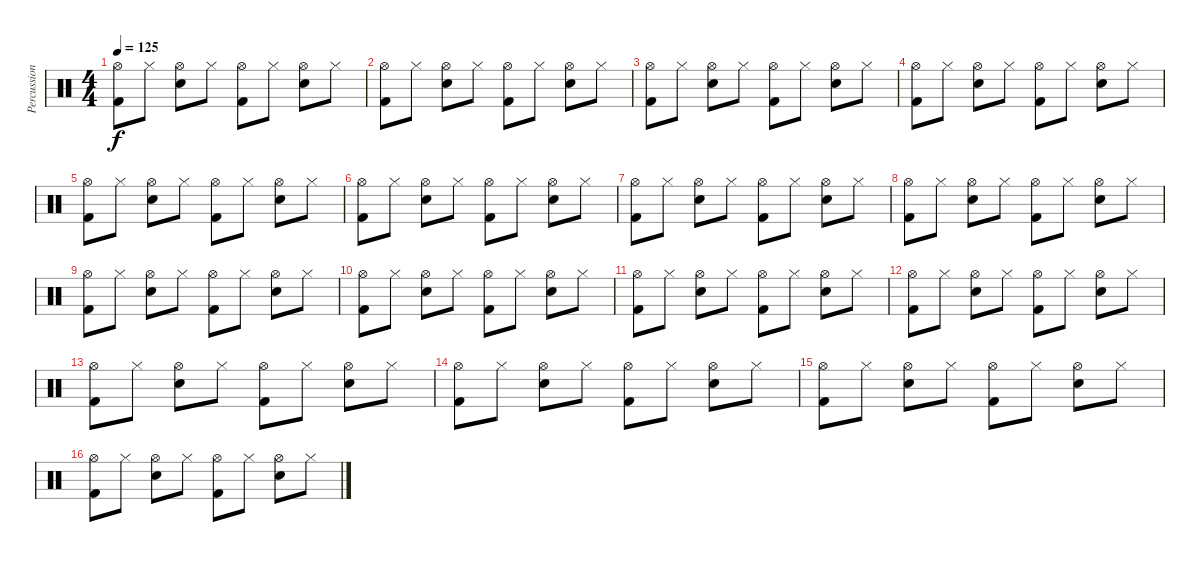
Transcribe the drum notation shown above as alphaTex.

\track ("Percussions" "Percussion") {instrument percussion}
\staff {score}
\articulation defaults
\ts (4 4)
\tempo 125
\clef neutral
\ks c
("Hi-Hat (open)" "Kick (hit) 2").8{dy f} "Hi-Hat (closed)".8 ("Hi-Hat (open)" "Snare (hit) 2").8 "Hi-Hat (closed)".8 ("Hi-Hat (open)" "Kick (hit) 2").8 "Hi-Hat (closed)".8 ("Hi-Hat (open)" "Snare (hit) 2").8 "Hi-Hat (closed)".8 |
("Hi-Hat (open)" "Kick (hit) 2").8 "Hi-Hat (closed)".8 ("Hi-Hat (open)" "Snare (hit) 2").8 "Hi-Hat (closed)".8 ("Hi-Hat (open)" "Kick (hit) 2").8 "Hi-Hat (closed)".8 ("Hi-Hat (open)" "Snare (hit) 2").8 "Hi-Hat (closed)".8 |
("Hi-Hat (open)" "Kick (hit) 2").8 "Hi-Hat (closed)".8 ("Hi-Hat (open)" "Snare (hit) 2").8 "Hi-Hat (closed)".8 ("Hi-Hat (open)" "Kick (hit) 2").8 "Hi-Hat (closed)".8 ("Hi-Hat (open)" "Snare (hit) 2").8 "Hi-Hat (closed)".8 |
("Hi-Hat (open)" "Kick (hit) 2").8 "Hi-Hat (closed)".8 ("Hi-Hat (open)" "Snare (hit) 2").8 "Hi-Hat (closed)".8 ("Hi-Hat (open)" "Kick (hit) 2").8 "Hi-Hat (closed)".8 ("Hi-Hat (open)" "Snare (hit) 2").8 "Hi-Hat (closed)".8 |
("Hi-Hat (open)" "Kick (hit) 2").8 "Hi-Hat (closed)".8 ("Hi-Hat (open)" "Snare (hit) 2").8 "Hi-Hat (closed)".8 ("Hi-Hat (open)" "Kick (hit) 2").8 "Hi-Hat (closed)".8 ("Hi-Hat (open)" "Snare (hit) 2").8 "Hi-Hat (closed)".8 |
("Hi-Hat (open)" "Kick (hit) 2").8 "Hi-Hat (closed)".8 ("Hi-Hat (open)" "Snare (hit) 2").8 "Hi-Hat (closed)".8 ("Hi-Hat (open)" "Kick (hit) 2").8 "Hi-Hat (closed)".8 ("Hi-Hat (open)" "Snare (hit) 2").8 "Hi-Hat (closed)".8 |
("Hi-Hat (open)" "Kick (hit) 2").8 "Hi-Hat (closed)".8 ("Hi-Hat (open)" "Snare (hit) 2").8 "Hi-Hat (closed)".8 ("Hi-Hat (open)" "Kick (hit) 2").8 "Hi-Hat (closed)".8 ("Hi-Hat (open)" "Snare (hit) 2").8 "Hi-Hat (closed)".8 |
("Hi-Hat (open)" "Kick (hit) 2").8 "Hi-Hat (closed)".8 ("Hi-Hat (open)" "Snare (hit) 2").8 "Hi-Hat (closed)".8 ("Hi-Hat (open)" "Kick (hit) 2").8 "Hi-Hat (closed)".8 ("Hi-Hat (open)" "Snare (hit) 2").8 "Hi-Hat (closed)".8 |
("Hi-Hat (open)" "Kick (hit) 2").8 "Hi-Hat (closed)".8 ("Hi-Hat (open)" "Snare (hit) 2").8 "Hi-Hat (closed)".8 ("Hi-Hat (open)" "Kick (hit) 2").8 "Hi-Hat (closed)".8 ("Hi-Hat (open)" "Snare (hit) 2").8 "Hi-Hat (closed)".8 |
("Hi-Hat (open)" "Kick (hit) 2").8 "Hi-Hat (closed)".8 ("Hi-Hat (open)" "Snare (hit) 2").8 "Hi-Hat (closed)".8 ("Hi-Hat (open)" "Kick (hit) 2").8 "Hi-Hat (closed)".8 ("Hi-Hat (open)" "Snare (hit) 2").8 "Hi-Hat (closed)".8 |
("Hi-Hat (open)" "Kick (hit) 2").8 "Hi-Hat (closed)".8 ("Hi-Hat (open)" "Snare (hit) 2").8 "Hi-Hat (closed)".8 ("Hi-Hat (open)" "Kick (hit) 2").8 "Hi-Hat (closed)".8 ("Hi-Hat (open)" "Snare (hit) 2").8 "Hi-Hat (closed)".8 |
("Hi-Hat (open)" "Kick (hit) 2").8 "Hi-Hat (closed)".8 ("Hi-Hat (open)" "Snare (hit) 2").8 "Hi-Hat (closed)".8 ("Hi-Hat (open)" "Kick (hit) 2").8 "Hi-Hat (closed)".8 ("Hi-Hat (open)" "Snare (hit) 2").8 "Hi-Hat (closed)".8 |
("Hi-Hat (open)" "Kick (hit) 2").8 "Hi-Hat (closed)".8 ("Hi-Hat (open)" "Snare (hit) 2").8 "Hi-Hat (closed)".8 ("Hi-Hat (open)" "Kick (hit) 2").8 "Hi-Hat (closed)".8 ("Hi-Hat (open)" "Snare (hit) 2").8 "Hi-Hat (closed)".8 |
("Hi-Hat (open)" "Kick (hit) 2").8 "Hi-Hat (closed)".8 ("Hi-Hat (open)" "Snare (hit) 2").8 "Hi-Hat (closed)".8 ("Hi-Hat (open)" "Kick (hit) 2").8 "Hi-Hat (closed)".8 ("Hi-Hat (open)" "Snare (hit) 2").8 "Hi-Hat (closed)".8 |
("Hi-Hat (open)" "Kick (hit) 2").8 "Hi-Hat (closed)".8 ("Hi-Hat (open)" "Snare (hit) 2").8 "Hi-Hat (closed)".8 ("Hi-Hat (open)" "Kick (hit) 2").8 "Hi-Hat (closed)".8 ("Hi-Hat (open)" "Snare (hit) 2").8 "Hi-Hat (closed)".8 |
("Hi-Hat (open)" "Kick (hit) 2").8 "Hi-Hat (closed)".8 ("Hi-Hat (open)" "Snare (hit) 2").8 "Hi-Hat (closed)".8 ("Hi-Hat (open)" "Kick (hit) 2").8 "Hi-Hat (closed)".8 ("Hi-Hat (open)" "Snare (hit) 2").8 "Hi-Hat (closed)".8
